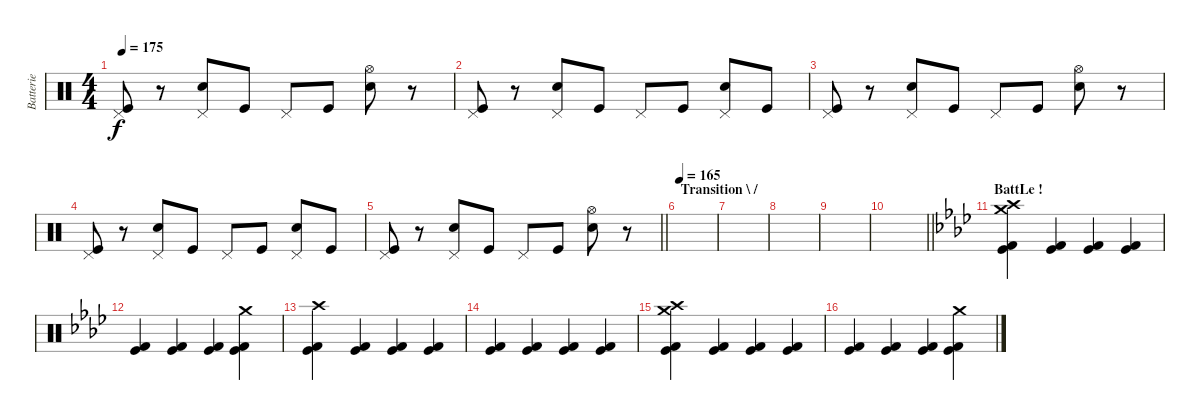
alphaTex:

\track ("Batterie" "Batterie") {instrument percussion}
\staff {score}
\articulation defaults
\ts (4 4)
\tempo 175
\clef neutral
\ks c
("Kick (hit)" "Pedal Hi-Hat (hit)").8{dy f} r.8 ("Electric Snare (hit)" "Pedal Hi-Hat (hit)").8 "Kick (hit)".8 "Pedal Hi-Hat (hit)".8 "Kick (hit)".8 ("Electric Snare (hit)" "Hi-Hat (open)").8 r.8 |
("Kick (hit)" "Pedal Hi-Hat (hit)").8 r.8 ("Electric Snare (hit)" "Pedal Hi-Hat (hit)").8 "Kick (hit)".8 "Pedal Hi-Hat (hit)".8 "Kick (hit)".8 ("Electric Snare (hit)" "Pedal Hi-Hat (hit)").8 "Kick (hit)".8 |
("Kick (hit)" "Pedal Hi-Hat (hit)").8 r.8 ("Electric Snare (hit)" "Pedal Hi-Hat (hit)").8 "Kick (hit)".8 "Pedal Hi-Hat (hit)".8 "Kick (hit)".8 ("Electric Snare (hit)" "Hi-Hat (open)").8 r.8 |
("Kick (hit)" "Pedal Hi-Hat (hit)").8 r.8 ("Electric Snare (hit)" "Pedal Hi-Hat (hit)").8 "Kick (hit)".8 "Pedal Hi-Hat (hit)".8 "Kick (hit)".8 ("Electric Snare (hit)" "Pedal Hi-Hat (hit)").8 "Kick (hit)".8 |
\barLineRight lightlight
("Kick (hit)" "Pedal Hi-Hat (hit)").8 r.8 ("Electric Snare (hit)" "Pedal Hi-Hat (hit)").8 "Kick (hit)".8 "Pedal Hi-Hat (hit)".8 "Kick (hit)".8 ("Electric Snare (hit)" "Hi-Hat (open)").8 r.8 |
\section ("" "Transition \\ /")
\tempo 165
|
|
|
|
\barLineRight lightlight
|
\section ("" "BattLe !")
\ks ab
("Kick (hit)" "Kick (hit) 2" "Crash high (hit)" "Crash medium (hit)").4 ("Kick (hit)" "Kick (hit) 2").4 ("Kick (hit)" "Kick (hit) 2").4 ("Kick (hit)" "Kick (hit) 2").4 |
("Kick (hit)" "Kick (hit) 2").4 ("Kick (hit)" "Kick (hit) 2").4 ("Kick (hit)" "Kick (hit) 2").4 ("Kick (hit)" "Kick (hit) 2" "Crash medium (hit)").4 |
("Kick (hit)" "Kick (hit) 2" "Crash high (hit)").4 ("Kick (hit)" "Kick (hit) 2").4 ("Kick (hit)" "Kick (hit) 2").4 ("Kick (hit)" "Kick (hit) 2").4 |
("Kick (hit)" "Kick (hit) 2").4 ("Kick (hit)" "Kick (hit) 2").4 ("Kick (hit)" "Kick (hit) 2").4 ("Kick (hit)" "Kick (hit) 2").4 |
("Kick (hit)" "Kick (hit) 2" "Crash high (hit)" "Crash medium (hit)").4 ("Kick (hit)" "Kick (hit) 2").4 ("Kick (hit)" "Kick (hit) 2").4 ("Kick (hit)" "Kick (hit) 2").4 |
("Kick (hit)" "Kick (hit) 2").4 ("Kick (hit)" "Kick (hit) 2").4 ("Kick (hit)" "Kick (hit) 2").4 ("Kick (hit)" "Kick (hit) 2" "Crash medium (hit)").4
